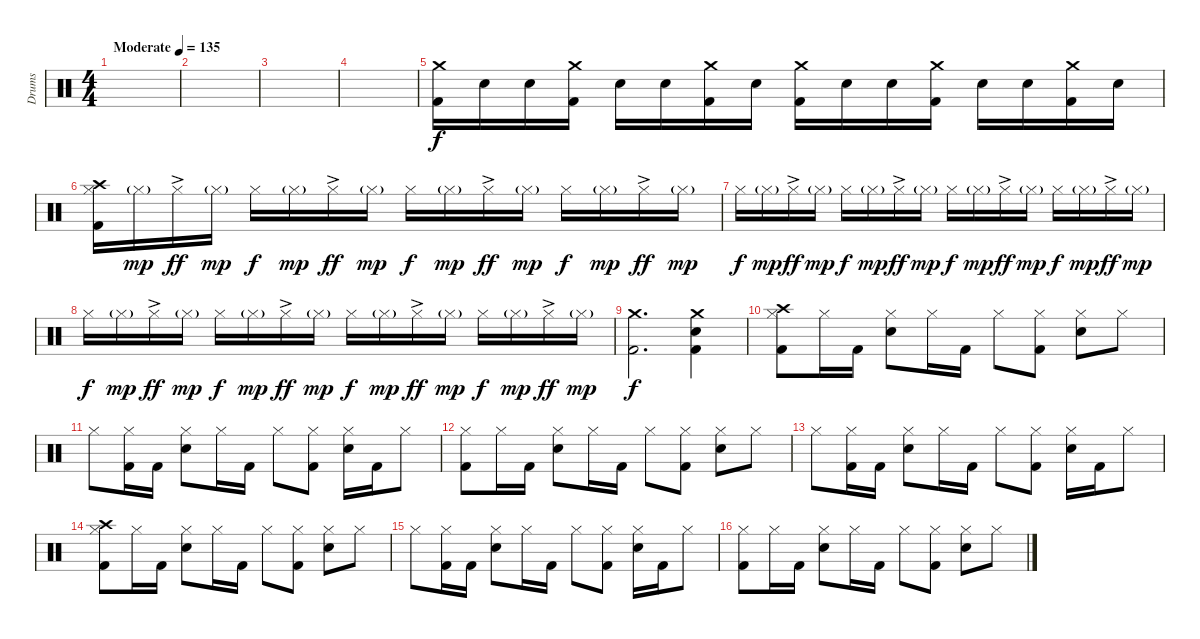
\track ("Drums" "Drums") {instrument percussion}
\staff {score}
\articulation defaults
\ts (4 4)
\tempo (135 "Moderate")
\clef neutral
\ks c
|
|
|
|
("Crash medium (hit)" "Kick (hit) 2").16 "Snare (hit) 2".16 "Snare (hit) 2".16 ("Crash medium (hit)" "Kick (hit) 2").16 "Snare (hit) 2".16 "Snare (hit) 2".16 ("Crash medium (hit)" "Kick (hit) 2").16 "Snare (hit) 2".16 ("Crash medium (hit)" "Kick (hit) 2").16 "Snare (hit) 2".16 "Snare (hit) 2".16 ("Crash medium (hit)" "Kick (hit) 2").16 "Snare (hit) 2".16 "Snare (hit) 2".16 ("Crash medium (hit)" "Kick (hit) 2").16 "Snare (hit) 2".16 |
("Hi-Hat (closed)" "Crash high (hit)" "Kick (hit) 2").16 "Hi-Hat (closed)"{g}.16{dy mp} "Hi-Hat (closed)"{ac}.16{dy ff} "Hi-Hat (closed)"{g}.16{dy mp} "Hi-Hat (closed)".16{dy f} "Hi-Hat (closed)"{g}.16{dy mp} "Hi-Hat (closed)"{ac}.16{dy ff} "Hi-Hat (closed)"{g}.16{dy mp} "Hi-Hat (closed)".16{dy f} "Hi-Hat (closed)"{g}.16{dy mp} "Hi-Hat (closed)"{ac}.16{dy ff} "Hi-Hat (closed)"{g}.16{dy mp} "Hi-Hat (closed)".16{dy f} "Hi-Hat (closed)"{g}.16{dy mp} "Hi-Hat (closed)"{ac}.16{dy ff} "Hi-Hat (closed)"{g}.16{dy mp} |
"Hi-Hat (closed)".16{dy f} "Hi-Hat (closed)"{g}.16{dy mp} "Hi-Hat (closed)"{ac}.16{dy ff} "Hi-Hat (closed)"{g}.16{dy mp} "Hi-Hat (closed)".16{dy f} "Hi-Hat (closed)"{g}.16{dy mp} "Hi-Hat (closed)"{ac}.16{dy ff} "Hi-Hat (closed)"{g}.16{dy mp} "Hi-Hat (closed)".16{dy f} "Hi-Hat (closed)"{g}.16{dy mp} "Hi-Hat (closed)"{ac}.16{dy ff} "Hi-Hat (closed)"{g}.16{dy mp} "Hi-Hat (closed)".16{dy f} "Hi-Hat (closed)"{g}.16{dy mp} "Hi-Hat (closed)"{ac}.16{dy ff} "Hi-Hat (closed)"{g}.16{dy mp} |
"Hi-Hat (closed)".16{dy f} "Hi-Hat (closed)"{g}.16{dy mp} "Hi-Hat (closed)"{ac}.16{dy ff} "Hi-Hat (closed)"{g}.16{dy mp} "Hi-Hat (closed)".16{dy f} "Hi-Hat (closed)"{g}.16{dy mp} "Hi-Hat (closed)"{ac}.16{dy ff} "Hi-Hat (closed)"{g}.16{dy mp} "Hi-Hat (closed)".16{dy f} "Hi-Hat (closed)"{g}.16{dy mp} "Hi-Hat (closed)"{ac}.16{dy ff} "Hi-Hat (closed)"{g}.16{dy mp} "Hi-Hat (closed)".16{dy f} "Hi-Hat (closed)"{g}.16{dy mp} "Hi-Hat (closed)"{ac}.16{dy ff} "Hi-Hat (closed)"{g}.16{dy mp} |
("Crash medium (hit)" "Kick (hit) 2").2{d dy f} ("Crash medium (hit)" "Snare (hit) 2" "Kick (hit) 2").4 |
("Hi-Hat (closed)" "Crash high (hit)" "Kick (hit) 2").8 "Hi-Hat (closed)".16 "Kick (hit) 2".16 ("Hi-Hat (closed)" "Snare (hit) 2").8 "Hi-Hat (closed)".16 "Kick (hit) 2".16 "Hi-Hat (closed)".8 ("Hi-Hat (closed)" "Kick (hit) 2").8 ("Hi-Hat (closed)" "Snare (hit) 2").8 "Hi-Hat (closed)".8 |
"Hi-Hat (closed)".8 ("Hi-Hat (closed)" "Kick (hit) 2").16 "Kick (hit) 2".16 ("Hi-Hat (closed)" "Snare (hit) 2").8 "Hi-Hat (closed)".16 "Kick (hit) 2".16 "Hi-Hat (closed)".8 ("Hi-Hat (closed)" "Kick (hit) 2").8 ("Hi-Hat (closed)" "Snare (hit) 2").16 "Kick (hit) 2".16 "Hi-Hat (closed)".8 |
("Hi-Hat (closed)" "Kick (hit) 2").8 "Hi-Hat (closed)".16 "Kick (hit) 2".16 ("Hi-Hat (closed)" "Snare (hit) 2").8 "Hi-Hat (closed)".16 "Kick (hit) 2".16 "Hi-Hat (closed)".8 ("Hi-Hat (closed)" "Kick (hit) 2").8 ("Hi-Hat (closed)" "Snare (hit) 2").8 "Hi-Hat (closed)".8 |
"Hi-Hat (closed)".8 ("Hi-Hat (closed)" "Kick (hit) 2").16 "Kick (hit) 2".16 ("Hi-Hat (closed)" "Snare (hit) 2").8 "Hi-Hat (closed)".16 "Kick (hit) 2".16 "Hi-Hat (closed)".8 ("Hi-Hat (closed)" "Kick (hit) 2").8 ("Hi-Hat (closed)" "Snare (hit) 2").16 "Kick (hit) 2".16 "Hi-Hat (closed)".8 |
("Hi-Hat (closed)" "Crash high (hit)" "Kick (hit) 2").8 "Hi-Hat (closed)".16 "Kick (hit) 2".16 ("Hi-Hat (closed)" "Snare (hit) 2").8 "Hi-Hat (closed)".16 "Kick (hit) 2".16 "Hi-Hat (closed)".8 ("Hi-Hat (closed)" "Kick (hit) 2").8 ("Hi-Hat (closed)" "Snare (hit) 2").8 "Hi-Hat (closed)".8 |
"Hi-Hat (closed)".8 ("Hi-Hat (closed)" "Kick (hit) 2").16 "Kick (hit) 2".16 ("Hi-Hat (closed)" "Snare (hit) 2").8 "Hi-Hat (closed)".16 "Kick (hit) 2".16 "Hi-Hat (closed)".8 ("Hi-Hat (closed)" "Kick (hit) 2").8 ("Hi-Hat (closed)" "Snare (hit) 2").16 "Kick (hit) 2".16 "Hi-Hat (closed)".8 |
("Hi-Hat (closed)" "Kick (hit) 2").8 "Hi-Hat (closed)".16 "Kick (hit) 2".16 ("Hi-Hat (closed)" "Snare (hit) 2").8 "Hi-Hat (closed)".16 "Kick (hit) 2".16 "Hi-Hat (closed)".8 ("Hi-Hat (closed)" "Kick (hit) 2").8 ("Hi-Hat (closed)" "Snare (hit) 2").8 "Hi-Hat (closed)".8
